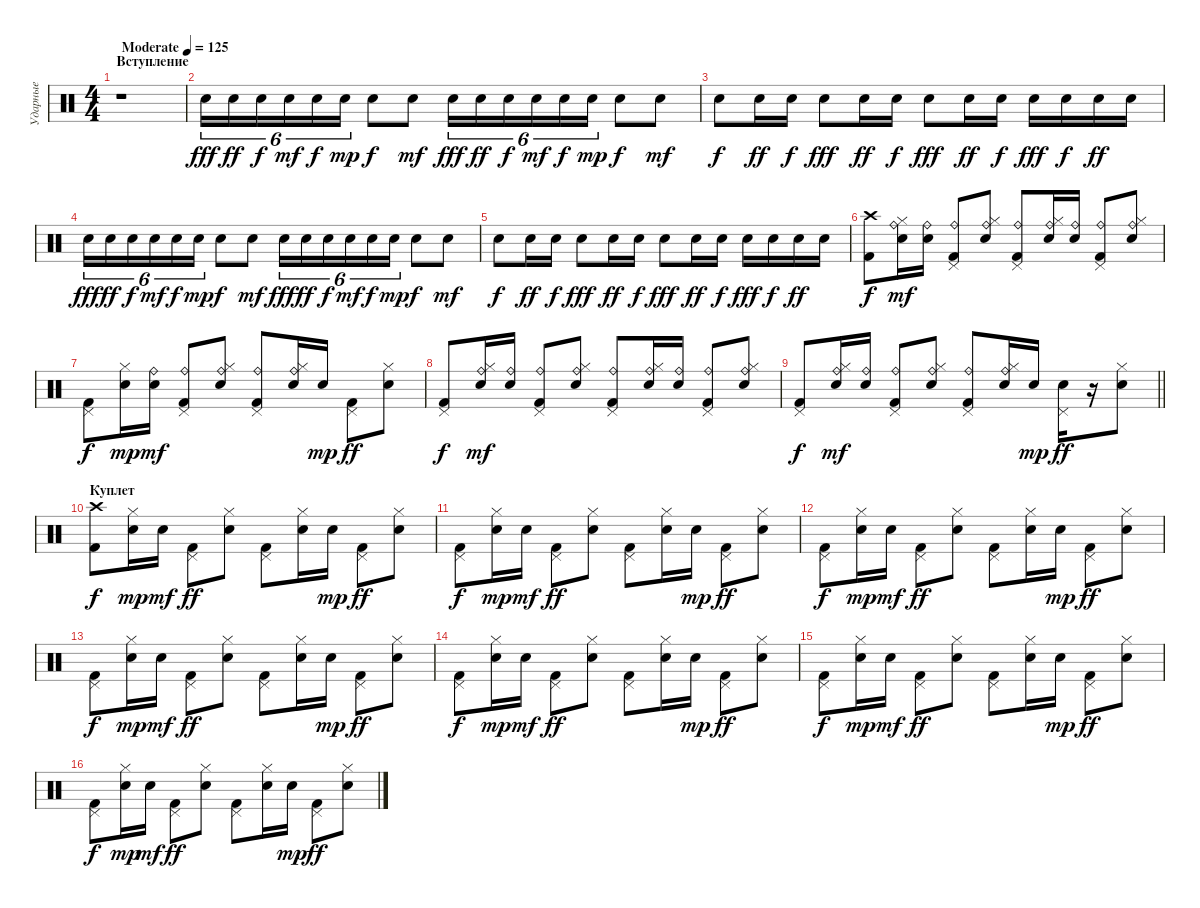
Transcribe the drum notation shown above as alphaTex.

\track ("Ударные" "Ударные") {instrument percussion}
\staff {score}
\articulation defaults
\ts (4 4)
\section ("" "Вступление")
\tempo (125 "Moderate")
\clef neutral
\ks c
r.1{dy fff} |
"Electric Snare (hit)".16{tu (6 4)} "Electric Snare (hit)".16{tu (6 4) dy ff} "Electric Snare (hit)".16{tu (6 4) dy f} "Electric Snare (hit)".16{tu (6 4) dy mf} "Electric Snare (hit)".16{tu (6 4) dy f} "Electric Snare (hit)".16{tu (6 4) dy mp} "Electric Snare (hit)".8{dy f} "Electric Snare (hit)".8{dy mf} "Electric Snare (hit)".16{tu (6 4) dy fff} "Electric Snare (hit)".16{tu (6 4) dy ff} "Electric Snare (hit)".16{tu (6 4) dy f} "Electric Snare (hit)".16{tu (6 4) dy mf} "Electric Snare (hit)".16{tu (6 4) dy f} "Electric Snare (hit)".16{tu (6 4) dy mp} "Electric Snare (hit)".8{dy f} "Electric Snare (hit)".8{dy mf} |
"Electric Snare (hit)".8{dy f} "Electric Snare (hit)".16{dy ff} "Electric Snare (hit)".16{dy f} "Electric Snare (hit)".8{dy fff} "Electric Snare (hit)".16{dy ff} "Electric Snare (hit)".16{dy f} "Electric Snare (hit)".8{dy fff} "Electric Snare (hit)".16{dy ff} "Electric Snare (hit)".16{dy f} "Electric Snare (hit)".16{dy fff} "Electric Snare (hit)".16{dy f} "Electric Snare (hit)".16{dy ff} "Electric Snare (hit)".16 |
"Electric Snare (hit)".16{tu (6 4) dy fff} "Electric Snare (hit)".16{tu (6 4) dy ff} "Electric Snare (hit)".16{tu (6 4) dy f} "Electric Snare (hit)".16{tu (6 4) dy mf} "Electric Snare (hit)".16{tu (6 4) dy f} "Electric Snare (hit)".16{tu (6 4) dy mp} "Electric Snare (hit)".8{dy f} "Electric Snare (hit)".8{dy mf} "Electric Snare (hit)".16{tu (6 4) dy fff} "Electric Snare (hit)".16{tu (6 4) dy ff} "Electric Snare (hit)".16{tu (6 4) dy f} "Electric Snare (hit)".16{tu (6 4) dy mf} "Electric Snare (hit)".16{tu (6 4) dy f} "Electric Snare (hit)".16{tu (6 4) dy mp} "Electric Snare (hit)".8{dy f} "Electric Snare (hit)".8{dy mf} |
"Electric Snare (hit)".8{dy f} "Electric Snare (hit)".16{dy ff} "Electric Snare (hit)".16{dy f} "Electric Snare (hit)".8{dy fff} "Electric Snare (hit)".16{dy ff} "Electric Snare (hit)".16{dy f} "Electric Snare (hit)".8{dy fff} "Electric Snare (hit)".16{dy ff} "Electric Snare (hit)".16{dy f} "Electric Snare (hit)".16{dy fff} "Electric Snare (hit)".16{dy f} "Electric Snare (hit)".16{dy ff} "Electric Snare (hit)".16 |
("Crash high (hit)" "Kick (hit) 2").8{dy f} ("Hi-Hat (closed)" "Electric Snare (hit)" "Ride (bell)").16{dy mf} ("Electric Snare (hit)" "Ride (bell)").16 ("Pedal Hi-Hat (hit)" "Ride (bell)" "Kick (hit) 2").8 ("Hi-Hat (closed)" "Electric Snare (hit)" "Ride (bell)").8 ("Pedal Hi-Hat (hit)" "Ride (bell)" "Kick (hit) 2").8 ("Hi-Hat (closed)" "Electric Snare (hit)" "Ride (bell)").16 ("Electric Snare (hit)" "Ride (bell)").16 ("Pedal Hi-Hat (hit)" "Ride (bell)" "Kick (hit) 2").8 ("Hi-Hat (closed)" "Electric Snare (hit)" "Ride (bell)").8 |
("Pedal Hi-Hat (hit)" "Kick (hit) 2").8{dy f} ("Hi-Hat (closed)" "Electric Snare (hit)").16{dy mp} ("Electric Snare (hit)" "Ride (bell)").16{dy mf} ("Pedal Hi-Hat (hit)" "Ride (bell)" "Kick (hit) 2").8 ("Hi-Hat (closed)" "Electric Snare (hit)" "Ride (bell)").8 ("Pedal Hi-Hat (hit)" "Ride (bell)" "Kick (hit) 2").8 ("Hi-Hat (closed)" "Electric Snare (hit)" "Ride (bell)").16 "Electric Snare (hit)".16{dy mp} ("Pedal Hi-Hat (hit)" "Kick (hit) 2").8{dy ff} ("Hi-Hat (closed)" "Electric Snare (hit)").8 |
("Pedal Hi-Hat (hit)" "Kick (hit) 2").8{dy f} ("Hi-Hat (closed)" "Electric Snare (hit)" "Ride (bell)").16{dy mf} ("Electric Snare (hit)" "Ride (bell)").16 ("Pedal Hi-Hat (hit)" "Ride (bell)" "Kick (hit) 2").8 ("Hi-Hat (closed)" "Electric Snare (hit)" "Ride (bell)").8 ("Pedal Hi-Hat (hit)" "Ride (bell)" "Kick (hit) 2").8 ("Hi-Hat (closed)" "Electric Snare (hit)" "Ride (bell)").16 ("Electric Snare (hit)" "Ride (bell)").16 ("Pedal Hi-Hat (hit)" "Ride (bell)" "Kick (hit) 2").8 ("Hi-Hat (closed)" "Electric Snare (hit)" "Ride (bell)").8 |
\barLineRight lightlight
("Pedal Hi-Hat (hit)" "Kick (hit) 2").8{dy f} ("Hi-Hat (closed)" "Electric Snare (hit)" "Ride (bell)").16{dy mf} ("Electric Snare (hit)" "Ride (bell)").16 ("Pedal Hi-Hat (hit)" "Ride (bell)" "Kick (hit) 2").8 ("Hi-Hat (closed)" "Electric Snare (hit)" "Ride (bell)").8 ("Pedal Hi-Hat (hit)" "Ride (bell)" "Kick (hit) 2").8 ("Hi-Hat (closed)" "Electric Snare (hit)" "Ride (bell)").16 "Electric Snare (hit)".16{dy mp} ("Pedal Hi-Hat (hit)" "Electric Snare (hit)").16{dy ff} r.16 ("Hi-Hat (closed)" "Electric Snare (hit)").8 |
\section ("" "Куплет")
("Crash high (hit)" "Kick (hit) 2").8{dy f} ("Hi-Hat (closed)" "Electric Snare (hit)").16{dy mp} "Electric Snare (hit)".16{dy mf} ("Pedal Hi-Hat (hit)" "Kick (hit) 2").8{dy ff} ("Hi-Hat (closed)" "Electric Snare (hit)").8 ("Pedal Hi-Hat (hit)" "Kick (hit) 2").8 ("Hi-Hat (closed)" "Electric Snare (hit)").16 "Electric Snare (hit)".16{dy mp} ("Pedal Hi-Hat (hit)" "Kick (hit) 2").8{dy ff} ("Hi-Hat (closed)" "Electric Snare (hit)").8 |
("Pedal Hi-Hat (hit)" "Kick (hit) 2").8{dy f} ("Hi-Hat (closed)" "Electric Snare (hit)").16{dy mp} "Electric Snare (hit)".16{dy mf} ("Pedal Hi-Hat (hit)" "Kick (hit) 2").8{dy ff} ("Hi-Hat (closed)" "Electric Snare (hit)").8 ("Pedal Hi-Hat (hit)" "Kick (hit) 2").8 ("Hi-Hat (closed)" "Electric Snare (hit)").16 "Electric Snare (hit)".16{dy mp} ("Pedal Hi-Hat (hit)" "Kick (hit) 2").8{dy ff} ("Hi-Hat (closed)" "Electric Snare (hit)").8 |
("Pedal Hi-Hat (hit)" "Kick (hit) 2").8{dy f} ("Hi-Hat (closed)" "Electric Snare (hit)").16{dy mp} "Electric Snare (hit)".16{dy mf} ("Pedal Hi-Hat (hit)" "Kick (hit) 2").8{dy ff} ("Hi-Hat (closed)" "Electric Snare (hit)").8 ("Pedal Hi-Hat (hit)" "Kick (hit) 2").8 ("Hi-Hat (closed)" "Electric Snare (hit)").16 "Electric Snare (hit)".16{dy mp} ("Pedal Hi-Hat (hit)" "Kick (hit) 2").8{dy ff} ("Hi-Hat (closed)" "Electric Snare (hit)").8 |
("Pedal Hi-Hat (hit)" "Kick (hit) 2").8{dy f} ("Hi-Hat (closed)" "Electric Snare (hit)").16{dy mp} "Electric Snare (hit)".16{dy mf} ("Pedal Hi-Hat (hit)" "Kick (hit) 2").8{dy ff} ("Hi-Hat (closed)" "Electric Snare (hit)").8 ("Pedal Hi-Hat (hit)" "Kick (hit) 2").8 ("Hi-Hat (closed)" "Electric Snare (hit)").16 "Electric Snare (hit)".16{dy mp} ("Pedal Hi-Hat (hit)" "Kick (hit) 2").8{dy ff} ("Hi-Hat (closed)" "Electric Snare (hit)").8 |
("Pedal Hi-Hat (hit)" "Kick (hit) 2").8{dy f} ("Hi-Hat (closed)" "Electric Snare (hit)").16{dy mp} "Electric Snare (hit)".16{dy mf} ("Pedal Hi-Hat (hit)" "Kick (hit) 2").8{dy ff} ("Hi-Hat (closed)" "Electric Snare (hit)").8 ("Pedal Hi-Hat (hit)" "Kick (hit) 2").8 ("Hi-Hat (closed)" "Electric Snare (hit)").16 "Electric Snare (hit)".16{dy mp} ("Pedal Hi-Hat (hit)" "Kick (hit) 2").8{dy ff} ("Hi-Hat (closed)" "Electric Snare (hit)").8 |
("Pedal Hi-Hat (hit)" "Kick (hit) 2").8{dy f} ("Hi-Hat (closed)" "Electric Snare (hit)").16{dy mp} "Electric Snare (hit)".16{dy mf} ("Pedal Hi-Hat (hit)" "Kick (hit) 2").8{dy ff} ("Hi-Hat (closed)" "Electric Snare (hit)").8 ("Pedal Hi-Hat (hit)" "Kick (hit) 2").8 ("Hi-Hat (closed)" "Electric Snare (hit)").16 "Electric Snare (hit)".16{dy mp} ("Pedal Hi-Hat (hit)" "Kick (hit) 2").8{dy ff} ("Hi-Hat (closed)" "Electric Snare (hit)").8 |
("Pedal Hi-Hat (hit)" "Kick (hit) 2").8{dy f} ("Hi-Hat (closed)" "Electric Snare (hit)").16{dy mp} "Electric Snare (hit)".16{dy mf} ("Pedal Hi-Hat (hit)" "Kick (hit) 2").8{dy ff} ("Hi-Hat (closed)" "Electric Snare (hit)").8 ("Pedal Hi-Hat (hit)" "Kick (hit) 2").8 ("Hi-Hat (closed)" "Electric Snare (hit)").16 "Electric Snare (hit)".16{dy mp} ("Pedal Hi-Hat (hit)" "Kick (hit) 2").8{dy ff} ("Hi-Hat (closed)" "Electric Snare (hit)").8
